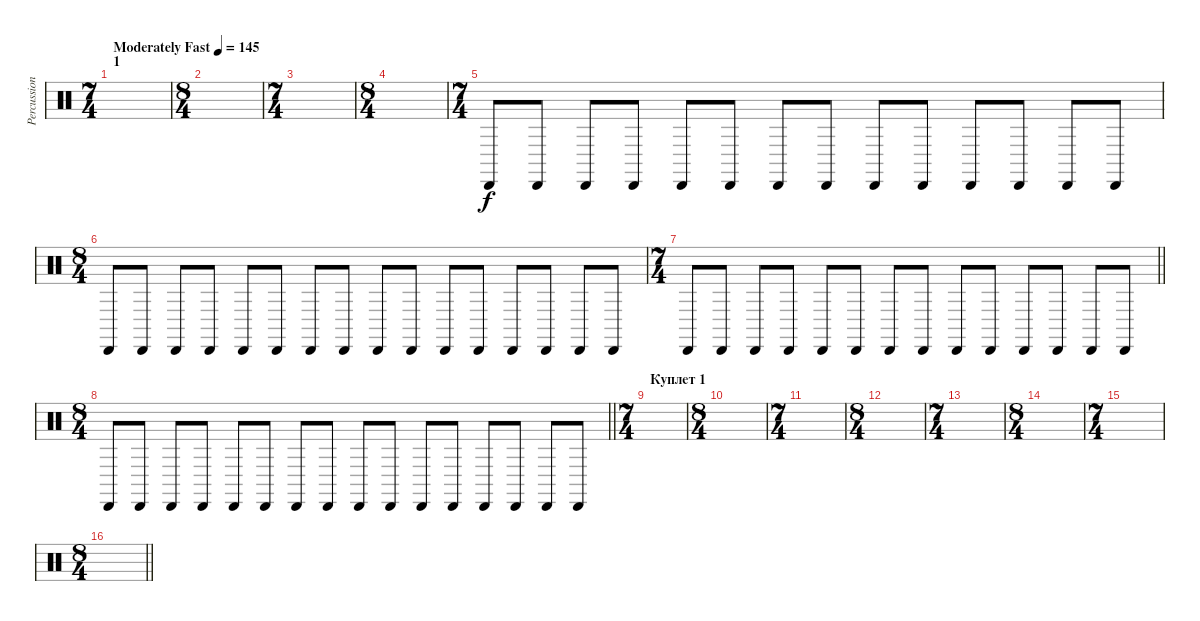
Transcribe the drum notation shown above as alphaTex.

\track ("Percussion" "Percussion") {instrument percussion}
\staff {score}
\articulation defaults
\ts (7 4)
\section ("" "1")
\tempo (145 "Moderately Fast")
\clef neutral
\ks c
|
\ts (8 4)
|
\ts (7 4)
|
\ts (8 4)
|
\ts (7 4)
"Cabasa (hit)".8 "Cabasa (hit)".8 "Cabasa (hit)".8 "Cabasa (hit)".8 "Cabasa (hit)".8 "Cabasa (hit)".8 "Cabasa (hit)".8 "Cabasa (hit)".8 "Cabasa (hit)".8 "Cabasa (hit)".8 "Cabasa (hit)".8 "Cabasa (hit)".8 "Cabasa (hit)".8 "Cabasa (hit)".8 |
\ts (8 4)
"Cabasa (hit)".8 "Cabasa (hit)".8 "Cabasa (hit)".8 "Cabasa (hit)".8 "Cabasa (hit)".8 "Cabasa (hit)".8 "Cabasa (hit)".8 "Cabasa (hit)".8 "Cabasa (hit)".8 "Cabasa (hit)".8 "Cabasa (hit)".8 "Cabasa (hit)".8 "Cabasa (hit)".8 "Cabasa (hit)".8 "Cabasa (hit)".8 "Cabasa (hit)".8 |
\ts (7 4)
\barLineRight lightlight "Cabasa (hit)".8 "Cabasa (hit)".8 "Cabasa (hit)".8 "Cabasa (hit)".8 "Cabasa (hit)".8 "Cabasa (hit)".8 "Cabasa (hit)".8 "Cabasa (hit)".8 "Cabasa (hit)".8 "Cabasa (hit)".8 "Cabasa (hit)".8 "Cabasa (hit)".8 "Cabasa (hit)".8 "Cabasa (hit)".8
|
\ts (8 4)
\barLineRight lightlight "Cabasa (hit)".8 "Cabasa (hit)".8 "Cabasa (hit)".8 "Cabasa (hit)".8 "Cabasa (hit)".8 "Cabasa (hit)".8 "Cabasa (hit)".8 "Cabasa (hit)".8 "Cabasa (hit)".8 "Cabasa (hit)".8 "Cabasa (hit)".8 "Cabasa (hit)".8 "Cabasa (hit)".8 "Cabasa (hit)".8 "Cabasa (hit)".8 "Cabasa (hit)".8
|
\ts (7 4)
\section ("" "Куплет 1")
|
\ts (8 4)
|
\ts (7 4)
|
\ts (8 4)
|
\ts (7 4)
|
\ts (8 4)
|
\ts (7 4)
|
\ts (8 4)
\barLineRight lightlight
